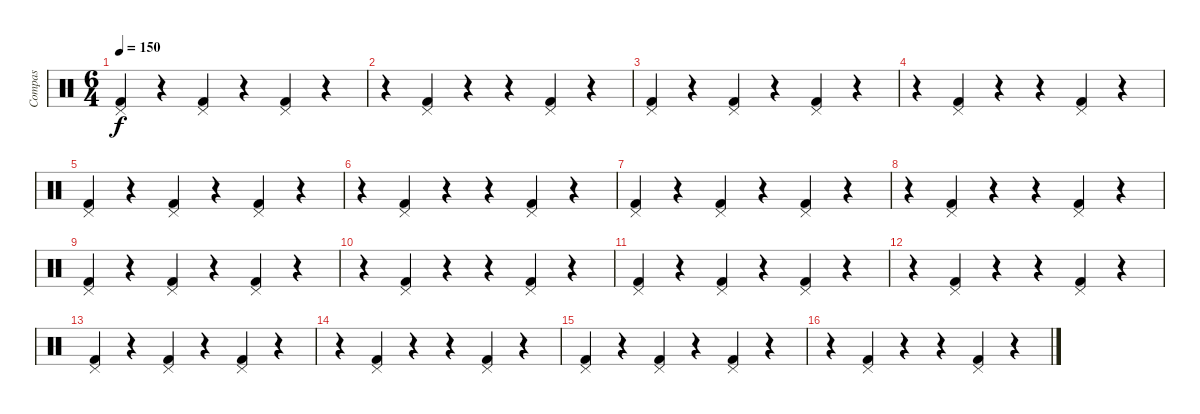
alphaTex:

\track ("Compas" "Compas") {instrument percussion}
\staff {score}
\articulation defaults
\ts (6 4)
\tempo 150
\clef neutral
\ks c
("Kick (hit) 2" "Pedal Hi-Hat (hit)").4{dy f} r.4 ("Kick (hit) 2" "Pedal Hi-Hat (hit)").4 r.4 ("Kick (hit) 2" "Pedal Hi-Hat (hit)").4 r.4 |
r.4 ("Kick (hit) 2" "Pedal Hi-Hat (hit)").4 r.4 r.4 ("Kick (hit) 2" "Pedal Hi-Hat (hit)").4 r.4 |
("Kick (hit) 2" "Pedal Hi-Hat (hit)").4 r.4 ("Kick (hit) 2" "Pedal Hi-Hat (hit)").4 r.4 ("Kick (hit) 2" "Pedal Hi-Hat (hit)").4 r.4 |
r.4 ("Kick (hit) 2" "Pedal Hi-Hat (hit)").4 r.4 r.4 ("Kick (hit) 2" "Pedal Hi-Hat (hit)").4 r.4 |
("Kick (hit) 2" "Pedal Hi-Hat (hit)").4 r.4 ("Kick (hit) 2" "Pedal Hi-Hat (hit)").4 r.4 ("Kick (hit) 2" "Pedal Hi-Hat (hit)").4 r.4 |
r.4 ("Kick (hit) 2" "Pedal Hi-Hat (hit)").4 r.4 r.4 ("Kick (hit) 2" "Pedal Hi-Hat (hit)").4 r.4 |
("Kick (hit) 2" "Pedal Hi-Hat (hit)").4 r.4 ("Kick (hit) 2" "Pedal Hi-Hat (hit)").4 r.4 ("Kick (hit) 2" "Pedal Hi-Hat (hit)").4 r.4 |
r.4 ("Kick (hit) 2" "Pedal Hi-Hat (hit)").4 r.4 r.4 ("Kick (hit) 2" "Pedal Hi-Hat (hit)").4 r.4 |
("Kick (hit) 2" "Pedal Hi-Hat (hit)").4 r.4 ("Kick (hit) 2" "Pedal Hi-Hat (hit)").4 r.4 ("Kick (hit) 2" "Pedal Hi-Hat (hit)").4 r.4 |
r.4 ("Kick (hit) 2" "Pedal Hi-Hat (hit)").4 r.4 r.4 ("Kick (hit) 2" "Pedal Hi-Hat (hit)").4 r.4 |
("Kick (hit) 2" "Pedal Hi-Hat (hit)").4 r.4 ("Kick (hit) 2" "Pedal Hi-Hat (hit)").4 r.4 ("Kick (hit) 2" "Pedal Hi-Hat (hit)").4 r.4 |
r.4 ("Kick (hit) 2" "Pedal Hi-Hat (hit)").4 r.4 r.4 ("Kick (hit) 2" "Pedal Hi-Hat (hit)").4 r.4 |
("Kick (hit) 2" "Pedal Hi-Hat (hit)").4 r.4 ("Kick (hit) 2" "Pedal Hi-Hat (hit)").4 r.4 ("Kick (hit) 2" "Pedal Hi-Hat (hit)").4 r.4 |
r.4 ("Kick (hit) 2" "Pedal Hi-Hat (hit)").4 r.4 r.4 ("Kick (hit) 2" "Pedal Hi-Hat (hit)").4 r.4 |
("Kick (hit) 2" "Pedal Hi-Hat (hit)").4 r.4 ("Kick (hit) 2" "Pedal Hi-Hat (hit)").4 r.4 ("Kick (hit) 2" "Pedal Hi-Hat (hit)").4 r.4 |
r.4 ("Kick (hit) 2" "Pedal Hi-Hat (hit)").4 r.4 r.4 ("Kick (hit) 2" "Pedal Hi-Hat (hit)").4 r.4
